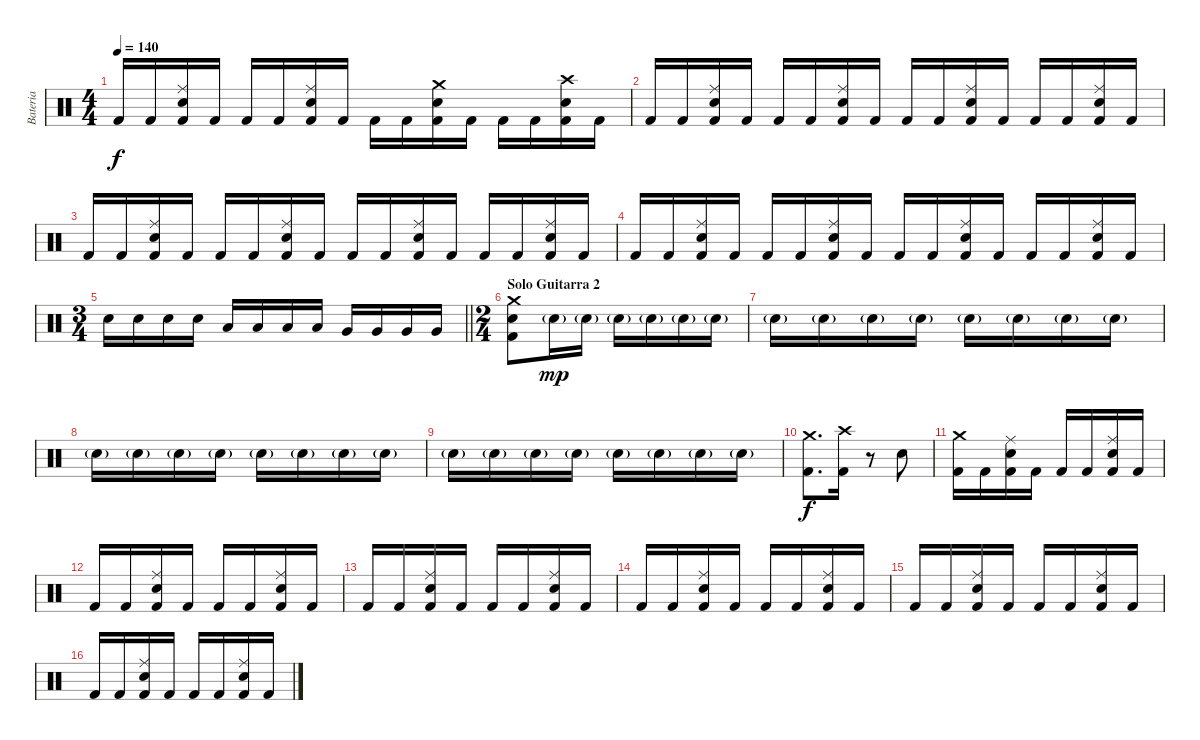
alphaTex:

\track ("Bateria" "Bateria") {instrument percussion}
\staff {score}
\articulation defaults
\ts (4 4)
\tempo 140
\clef neutral
\ks c "Kick (hit) 2".16{dy f} "Kick (hit) 2".16
("Ride (middle)" "Snare (hit) 2" "Kick (hit) 2").16 "Kick (hit) 2".16 "Kick (hit) 2".16 "Kick (hit) 2".16 ("Ride (middle)" "Snare (hit) 2" "Kick (hit) 2").16 "Kick (hit) 2".16 "Kick (hit) 2".16 "Kick (hit) 2".16 ("Crash medium (hit)" "Snare (hit) 2" "Kick (hit) 2").16 "Kick (hit) 2".16 "Kick (hit) 2".16 "Kick (hit) 2".16 ("Crash high (hit)" "Snare (hit) 2" "Kick (hit) 2").16 "Kick (hit) 2".16 |
"Kick (hit) 2".16 "Kick (hit) 2".16 ("Ride (middle)" "Snare (hit) 2" "Kick (hit) 2").16 "Kick (hit) 2".16 "Kick (hit) 2".16 "Kick (hit) 2".16 ("Ride (middle)" "Snare (hit) 2" "Kick (hit) 2").16 "Kick (hit) 2".16 "Kick (hit) 2".16 "Kick (hit) 2".16 ("Ride (middle)" "Snare (hit) 2" "Kick (hit) 2").16 "Kick (hit) 2".16 "Kick (hit) 2".16 "Kick (hit) 2".16 ("Ride (middle)" "Snare (hit) 2" "Kick (hit) 2").16 "Kick (hit) 2".16 |
"Kick (hit) 2".16 "Kick (hit) 2".16 ("Ride (middle)" "Snare (hit) 2" "Kick (hit) 2").16 "Kick (hit) 2".16 "Kick (hit) 2".16 "Kick (hit) 2".16 ("Ride (middle)" "Snare (hit) 2" "Kick (hit) 2").16 "Kick (hit) 2".16 "Kick (hit) 2".16 "Kick (hit) 2".16 ("Ride (middle)" "Snare (hit) 2" "Kick (hit) 2").16 "Kick (hit) 2".16 "Kick (hit) 2".16 "Kick (hit) 2".16 ("Ride (middle)" "Snare (hit) 2" "Kick (hit) 2").16 "Kick (hit) 2".16 |
"Kick (hit) 2".16 "Kick (hit) 2".16 ("Ride (middle)" "Snare (hit) 2" "Kick (hit) 2").16 "Kick (hit) 2".16 "Kick (hit) 2".16 "Kick (hit) 2".16 ("Ride (middle)" "Snare (hit) 2" "Kick (hit) 2").16 "Kick (hit) 2".16 "Kick (hit) 2".16 "Kick (hit) 2".16 ("Ride (middle)" "Snare (hit) 2" "Kick (hit) 2").16 "Kick (hit) 2".16 "Kick (hit) 2".16 "Kick (hit) 2".16 ("Ride (middle)" "Snare (hit) 2" "Kick (hit) 2").16 "Kick (hit) 2".16 |
\ts (3 4)
\barLineRight lightlight "Snare (hit) 2".16 "Snare (hit) 2".16 "Snare (hit) 2".16 "Snare (hit) 2".16 "Low Tom (hit)".16 "Low Tom (hit)".16 "Low Tom (hit)".16 "Low Tom (hit)".16 "Very Low Tom (hit)".16 "Very Low Tom (hit)".16 "Very Low Tom (hit)".16 "Very Low Tom (hit)".16
|
\ts (2 4)
\section ("" "Solo Guitarra 2")
("Crash medium (hit)" "Snare (hit) 2" "Kick (hit) 2").8 "Snare (hit) 2"{g}.16{dy mp} "Snare (hit) 2"{g}.16 "Snare (hit) 2"{g}.16 "Snare (hit) 2"{g}.16 "Snare (hit) 2"{g}.16 "Snare (hit) 2"{g}.16 |
"Snare (hit) 2"{g}.16 "Snare (hit) 2"{g}.16 "Snare (hit) 2"{g}.16 "Snare (hit) 2"{g}.16 "Snare (hit) 2"{g}.16 "Snare (hit) 2"{g}.16 "Snare (hit) 2"{g}.16 "Snare (hit) 2"{g}.16 |
"Snare (hit) 2"{g}.16 "Snare (hit) 2"{g}.16 "Snare (hit) 2"{g}.16 "Snare (hit) 2"{g}.16 "Snare (hit) 2"{g}.16 "Snare (hit) 2"{g}.16 "Snare (hit) 2"{g}.16 "Snare (hit) 2"{g}.16 |
"Snare (hit) 2"{g}.16 "Snare (hit) 2"{g}.16 "Snare (hit) 2"{g}.16 "Snare (hit) 2"{g}.16 "Snare (hit) 2"{g}.16 "Snare (hit) 2"{g}.16 "Snare (hit) 2"{g}.16 "Snare (hit) 2"{g}.16 |
("Crash medium (hit)" "Kick (hit) 2").8{d dy f} ("Crash high (hit)" "Kick (hit) 2").16 r.8 "Snare (hit) 2".8 |
("Crash medium (hit)" "Kick (hit) 2").16 "Kick (hit) 2".16 ("Ride (middle)" "Snare (hit) 2" "Kick (hit) 2").16 "Kick (hit) 2".16 "Kick (hit) 2".16 "Kick (hit) 2".16 ("Ride (middle)" "Snare (hit) 2" "Kick (hit) 2").16 "Kick (hit) 2".16 |
"Kick (hit) 2".16 "Kick (hit) 2".16 ("Ride (middle)" "Snare (hit) 2" "Kick (hit) 2").16 "Kick (hit) 2".16 "Kick (hit) 2".16 "Kick (hit) 2".16 ("Ride (middle)" "Snare (hit) 2" "Kick (hit) 2").16 "Kick (hit) 2".16 |
"Kick (hit) 2".16 "Kick (hit) 2".16 ("Ride (middle)" "Snare (hit) 2" "Kick (hit) 2").16 "Kick (hit) 2".16 "Kick (hit) 2".16 "Kick (hit) 2".16 ("Ride (middle)" "Snare (hit) 2" "Kick (hit) 2").16 "Kick (hit) 2".16 |
"Kick (hit) 2".16 "Kick (hit) 2".16 ("Ride (middle)" "Snare (hit) 2" "Kick (hit) 2").16 "Kick (hit) 2".16 "Kick (hit) 2".16 "Kick (hit) 2".16 ("Ride (middle)" "Snare (hit) 2" "Kick (hit) 2").16 "Kick (hit) 2".16 |
"Kick (hit) 2".16 "Kick (hit) 2".16 ("Ride (middle)" "Snare (hit) 2" "Kick (hit) 2").16 "Kick (hit) 2".16 "Kick (hit) 2".16 "Kick (hit) 2".16 ("Ride (middle)" "Snare (hit) 2" "Kick (hit) 2").16 "Kick (hit) 2".16 |
"Kick (hit) 2".16 "Kick (hit) 2".16 ("Ride (middle)" "Snare (hit) 2" "Kick (hit) 2").16 "Kick (hit) 2".16 "Kick (hit) 2".16 "Kick (hit) 2".16 ("Ride (middle)" "Snare (hit) 2" "Kick (hit) 2").16 "Kick (hit) 2".16
